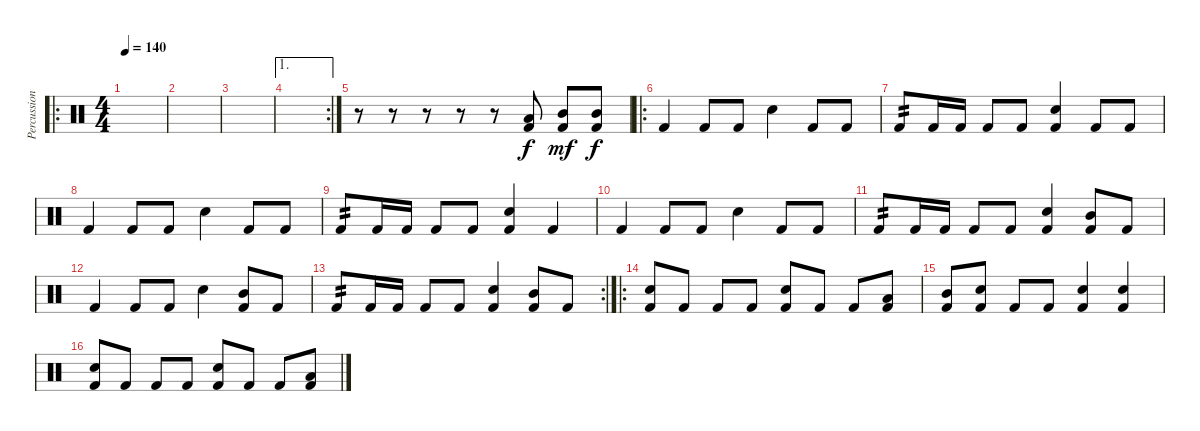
\track ("Percussion" "Percussion") {instrument percussion}
\staff {score}
\articulation defaults
\ro
\ts (4 4)
\tempo 140
\clef neutral
\ks c
|
|
|
\ae 1
\rc 2
|
r.8 r.8 r.8 r.8 r.8 ("Low Tom (hit)" "Kick (hit) 2").8 ("Mid Tom (hit)" "Kick (hit) 2").8{dy mf} ("Mid Tom (hit)" "Kick (hit) 2").8{dy f} |
\ro "Kick (hit) 2".4 "Kick (hit) 2".8 "Kick (hit) 2".8 "Snare (hit) 2".4 "Kick (hit) 2".8 "Kick (hit) 2".8
|
"Kick (hit) 2".8{tp 2} "Kick (hit) 2".16 "Kick (hit) 2".16 "Kick (hit) 2".8 "Kick (hit) 2".8 ("Snare (hit) 2" "Kick (hit) 2").4 "Kick (hit) 2".8 "Kick (hit) 2".8 |
"Kick (hit) 2".4 "Kick (hit) 2".8 "Kick (hit) 2".8 "Snare (hit) 2".4 "Kick (hit) 2".8 "Kick (hit) 2".8 |
"Kick (hit) 2".8{tp 2} "Kick (hit) 2".16 "Kick (hit) 2".16 "Kick (hit) 2".8 "Kick (hit) 2".8 ("Snare (hit) 2" "Kick (hit) 2").4 "Kick (hit) 2".4 |
"Kick (hit) 2".4 "Kick (hit) 2".8 "Kick (hit) 2".8 "Snare (hit) 2".4 "Kick (hit) 2".8 "Kick (hit) 2".8 |
"Kick (hit) 2".8{tp 2} "Kick (hit) 2".16 "Kick (hit) 2".16 "Kick (hit) 2".8 "Kick (hit) 2".8 ("Snare (hit) 2" "Kick (hit) 2").4 ("Mid Tom (hit)" "Kick (hit) 2").8 "Kick (hit) 2".8 |
"Kick (hit) 2".4 "Kick (hit) 2".8 "Kick (hit) 2".8 "Snare (hit) 2".4 ("Mid Tom (hit)" "Kick (hit) 2").8 "Kick (hit) 2".8 |
\rc 2 "Kick (hit) 2".8{tp 2} "Kick (hit) 2".16 "Kick (hit) 2".16 "Kick (hit) 2".8 "Kick (hit) 2".8
("Snare (hit) 2" "Kick (hit) 2").4 ("Mid Tom (hit)" "Kick (hit) 2").8 "Kick (hit) 2".8 |
\ro
("Snare (hit) 2" "Kick (hit) 2").8 "Kick (hit) 2".8 "Kick (hit) 2".8 "Kick (hit) 2".8 ("Snare (hit) 2" "Kick (hit) 2").8 "Kick (hit) 2".8 "Kick (hit) 2".8 ("Low Tom (hit)" "Kick (hit) 2").8 |
("Mid Tom (hit)" "Kick (hit) 2").8 ("Snare (hit) 2" "Kick (hit) 2").8 "Kick (hit) 2".8 "Kick (hit) 2".8 ("Snare (hit) 2" "Kick (hit) 2").4 ("Snare (hit) 2" "Kick (hit) 2").4 |
("Snare (hit) 2" "Kick (hit) 2").8 "Kick (hit) 2".8 "Kick (hit) 2".8 "Kick (hit) 2".8 ("Snare (hit) 2" "Kick (hit) 2").8 "Kick (hit) 2".8 "Kick (hit) 2".8 ("Low Tom (hit)" "Kick (hit) 2").8
